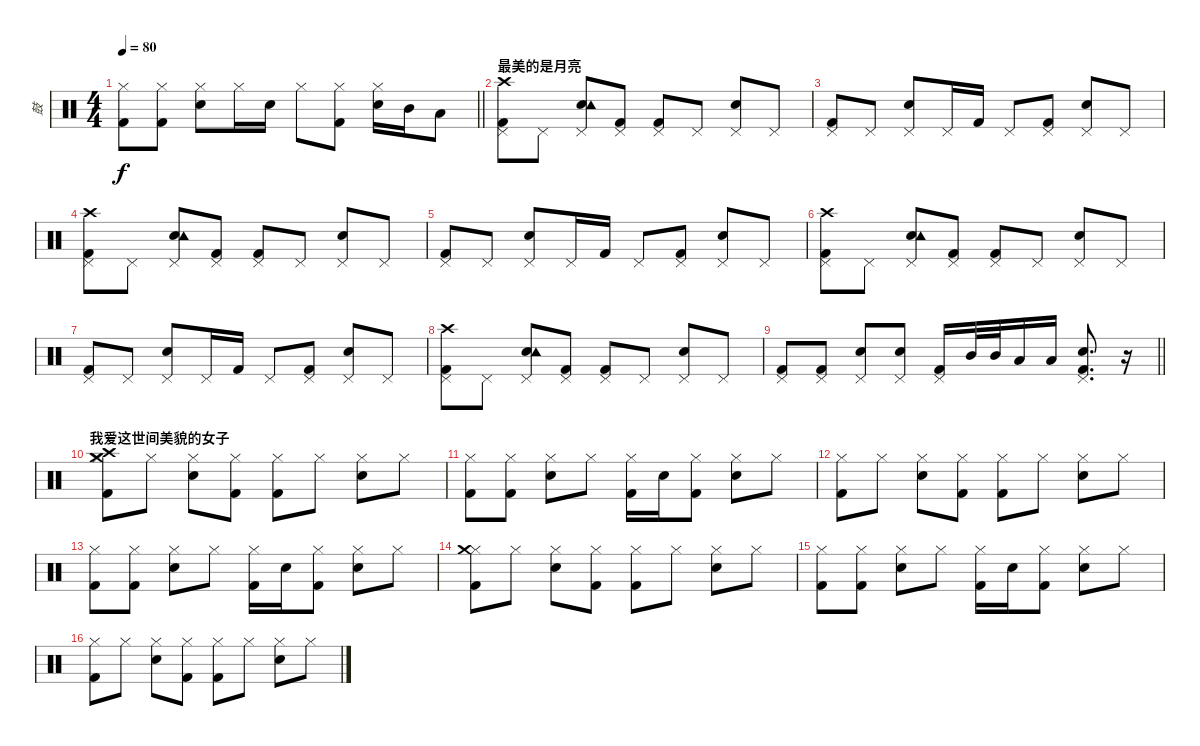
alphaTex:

\track ("鼓" "鼓") {instrument percussion}
\staff {score}
\articulation defaults
\ts (4 4)
\tempo 80
\clef neutral
\barLineRight lightlight
\ks c
("Hi-Hat (closed)" "Kick (hit) 2").8{dy f} ("Hi-Hat (closed)" "Kick (hit) 2").8 ("Hi-Hat (closed)" "Electric Snare (hit)").8 "Hi-Hat (closed)".16 "Electric Snare (hit)".16 "Hi-Hat (closed)".8 ("Hi-Hat (closed)" "Kick (hit) 2").8 ("Hi-Hat (closed)" "Electric Snare (hit)").16 "Mid Tom (hit)".16 "Low Tom (hit)".8 |
\section ("" "最美的是月亮")
("Pedal Hi-Hat (hit)" "Crash high (hit)" "Kick (hit) 2").8 "Pedal Hi-Hat (hit)".8 ("Pedal Hi-Hat (hit)" "Snare (hit) 2" "Tambourine (hit)").8 ("Pedal Hi-Hat (hit)" "Kick (hit) 2").8 ("Pedal Hi-Hat (hit)" "Kick (hit) 2").8 "Pedal Hi-Hat (hit)".8 ("Pedal Hi-Hat (hit)" "Snare (hit) 2").8 "Pedal Hi-Hat (hit)".8 |
("Pedal Hi-Hat (hit)" "Kick (hit) 2").8 "Pedal Hi-Hat (hit)".8 ("Pedal Hi-Hat (hit)" "Snare (hit) 2").8 "Pedal Hi-Hat (hit)".16 "Kick (hit) 2".16 "Pedal Hi-Hat (hit)".8 ("Pedal Hi-Hat (hit)" "Kick (hit) 2").8 ("Pedal Hi-Hat (hit)" "Snare (hit) 2").8 "Pedal Hi-Hat (hit)".8 |
("Pedal Hi-Hat (hit)" "Crash high (hit)" "Kick (hit) 2").8 "Pedal Hi-Hat (hit)".8 ("Pedal Hi-Hat (hit)" "Snare (hit) 2" "Tambourine (hit)").8 ("Pedal Hi-Hat (hit)" "Kick (hit) 2").8 ("Pedal Hi-Hat (hit)" "Kick (hit) 2").8 "Pedal Hi-Hat (hit)".8 ("Pedal Hi-Hat (hit)" "Snare (hit) 2").8 "Pedal Hi-Hat (hit)".8 |
("Pedal Hi-Hat (hit)" "Kick (hit) 2").8 "Pedal Hi-Hat (hit)".8 ("Pedal Hi-Hat (hit)" "Snare (hit) 2").8 "Pedal Hi-Hat (hit)".16 "Kick (hit) 2".16 "Pedal Hi-Hat (hit)".8 ("Pedal Hi-Hat (hit)" "Kick (hit) 2").8 ("Pedal Hi-Hat (hit)" "Snare (hit) 2").8 "Pedal Hi-Hat (hit)".8 |
("Pedal Hi-Hat (hit)" "Crash high (hit)" "Kick (hit) 2").8 "Pedal Hi-Hat (hit)".8 ("Pedal Hi-Hat (hit)" "Snare (hit) 2" "Tambourine (hit)").8 ("Pedal Hi-Hat (hit)" "Kick (hit) 2").8 ("Pedal Hi-Hat (hit)" "Kick (hit) 2").8 "Pedal Hi-Hat (hit)".8 ("Pedal Hi-Hat (hit)" "Snare (hit) 2").8 "Pedal Hi-Hat (hit)".8 |
("Pedal Hi-Hat (hit)" "Kick (hit) 2").8 "Pedal Hi-Hat (hit)".8 ("Pedal Hi-Hat (hit)" "Snare (hit) 2").8 "Pedal Hi-Hat (hit)".16 "Kick (hit) 2".16 "Pedal Hi-Hat (hit)".8 ("Pedal Hi-Hat (hit)" "Kick (hit) 2").8 ("Pedal Hi-Hat (hit)" "Snare (hit) 2").8 "Pedal Hi-Hat (hit)".8 |
("Pedal Hi-Hat (hit)" "Crash high (hit)" "Kick (hit) 2").8 "Pedal Hi-Hat (hit)".8 ("Pedal Hi-Hat (hit)" "Snare (hit) 2" "Tambourine (hit)").8 ("Pedal Hi-Hat (hit)" "Kick (hit) 2").8 ("Pedal Hi-Hat (hit)" "Kick (hit) 2").8 "Pedal Hi-Hat (hit)".8 ("Pedal Hi-Hat (hit)" "Snare (hit) 2").8 "Pedal Hi-Hat (hit)".8 |
\barLineRight lightlight
("Pedal Hi-Hat (hit)" "Kick (hit) 2").8 ("Pedal Hi-Hat (hit)" "Kick (hit) 2").8 ("Pedal Hi-Hat (hit)" "Snare (hit) 2").8 ("Pedal Hi-Hat (hit)" "Snare (hit) 2").8 ("Pedal Hi-Hat (hit)" "Kick (hit) 2").16 "Mid Tom (hit)".32 "Mid Tom (hit)".32 "Low Tom (hit)".16 "Low Tom (hit)".16 ("Pedal Hi-Hat (hit)" "Snare (hit) 2" "Kick (hit) 2").8{d} r.16 |
\section ("" "我爱这世间美貌的女子")
("Hi-Hat (closed)" "Crash medium (hit)" "Crash high (hit)" "Kick (hit) 2").8 "Hi-Hat (closed)".8 ("Hi-Hat (closed)" "Snare (hit) 2").8 ("Hi-Hat (closed)" "Kick (hit) 2").8 ("Hi-Hat (closed)" "Kick (hit) 2").8 "Hi-Hat (closed)".8 ("Hi-Hat (closed)" "Snare (hit) 2").8 "Hi-Hat (closed)".8 |
("Hi-Hat (closed)" "Kick (hit) 2").8 ("Hi-Hat (closed)" "Kick (hit) 2").8 ("Hi-Hat (closed)" "Snare (hit) 2").8 "Hi-Hat (closed)".8 ("Hi-Hat (closed)" "Kick (hit) 2").16 "Snare (hit) 2".16 ("Hi-Hat (closed)" "Kick (hit) 2").8 ("Hi-Hat (closed)" "Snare (hit) 2").8 "Hi-Hat (closed)".8 |
("Hi-Hat (closed)" "Kick (hit) 2").8 "Hi-Hat (closed)".8 ("Hi-Hat (closed)" "Snare (hit) 2").8 ("Hi-Hat (closed)" "Kick (hit) 2").8 ("Hi-Hat (closed)" "Kick (hit) 2").8 "Hi-Hat (closed)".8 ("Hi-Hat (closed)" "Snare (hit) 2").8 "Hi-Hat (closed)".8 |
("Hi-Hat (closed)" "Kick (hit) 2").8 ("Hi-Hat (closed)" "Kick (hit) 2").8 ("Hi-Hat (closed)" "Snare (hit) 2").8 "Hi-Hat (closed)".8 ("Hi-Hat (closed)" "Kick (hit) 2").16 "Snare (hit) 2".16 ("Hi-Hat (closed)" "Kick (hit) 2").8 ("Hi-Hat (closed)" "Snare (hit) 2").8 "Hi-Hat (closed)".8 |
("Hi-Hat (closed)" "Crash medium (hit)" "Kick (hit) 2").8 "Hi-Hat (closed)".8 ("Hi-Hat (closed)" "Snare (hit) 2").8 ("Hi-Hat (closed)" "Kick (hit) 2").8 ("Hi-Hat (closed)" "Kick (hit) 2").8 "Hi-Hat (closed)".8 ("Hi-Hat (closed)" "Snare (hit) 2").8 "Hi-Hat (closed)".8 |
("Hi-Hat (closed)" "Kick (hit) 2").8 ("Hi-Hat (closed)" "Kick (hit) 2").8 ("Hi-Hat (closed)" "Snare (hit) 2").8 "Hi-Hat (closed)".8 ("Hi-Hat (closed)" "Kick (hit) 2").16 "Snare (hit) 2".16 ("Hi-Hat (closed)" "Kick (hit) 2").8 ("Hi-Hat (closed)" "Snare (hit) 2").8 "Hi-Hat (closed)".8 |
("Hi-Hat (closed)" "Kick (hit) 2").8 "Hi-Hat (closed)".8 ("Hi-Hat (closed)" "Snare (hit) 2").8 ("Hi-Hat (closed)" "Kick (hit) 2").8 ("Hi-Hat (closed)" "Kick (hit) 2").8 "Hi-Hat (closed)".8 ("Hi-Hat (closed)" "Snare (hit) 2").8 "Hi-Hat (closed)".8
